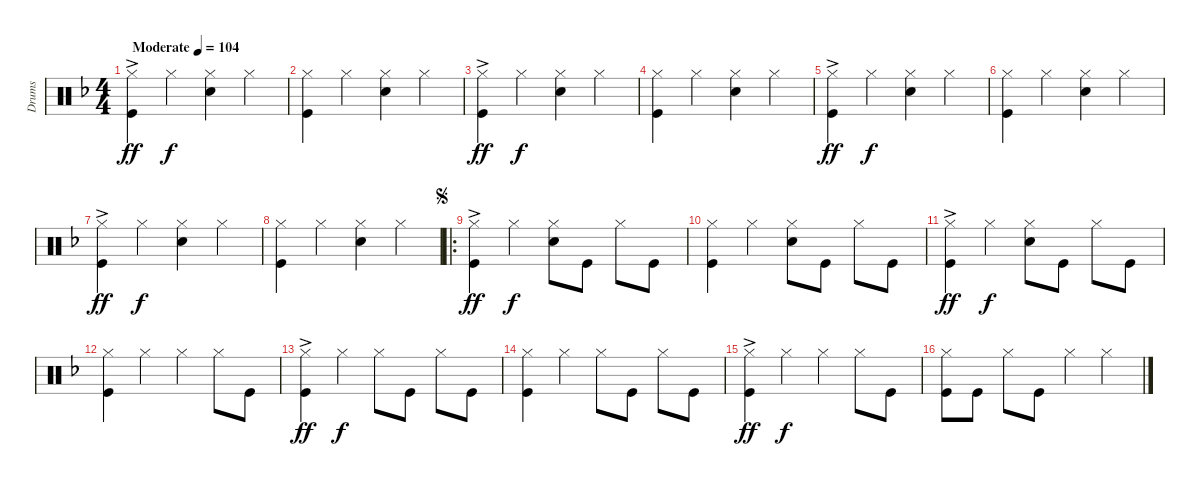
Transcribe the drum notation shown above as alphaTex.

\track ("Drums" "Drums") {instrument percussion}
\staff {score}
\articulation defaults
\ts (4 4)
\tempo (104 "Moderate")
\clef neutral
\ks f
("Hi-Hat (closed)"{ac} "Kick (hit)").4{dy ff} "Hi-Hat (closed)".4{dy f} ("Hi-Hat (closed)" "Snare (hit) 2").4 "Hi-Hat (closed)".4 |
("Hi-Hat (closed)" "Kick (hit)").4 "Hi-Hat (closed)".4 ("Hi-Hat (closed)" "Snare (hit) 2").4 "Hi-Hat (closed)".4 |
("Hi-Hat (closed)"{ac} "Kick (hit)").4{dy ff} "Hi-Hat (closed)".4{dy f} ("Hi-Hat (closed)" "Snare (hit) 2").4 "Hi-Hat (closed)".4 |
("Hi-Hat (closed)" "Kick (hit)").4 "Hi-Hat (closed)".4 ("Hi-Hat (closed)" "Snare (hit) 2").4 "Hi-Hat (closed)".4 |
("Hi-Hat (closed)"{ac} "Kick (hit)").4{dy ff} "Hi-Hat (closed)".4{dy f} ("Hi-Hat (closed)" "Snare (hit) 2").4 "Hi-Hat (closed)".4 |
("Hi-Hat (closed)" "Kick (hit)").4 "Hi-Hat (closed)".4 ("Hi-Hat (closed)" "Snare (hit) 2").4 "Hi-Hat (closed)".4 |
("Hi-Hat (closed)"{ac} "Kick (hit)").4{dy ff} "Hi-Hat (closed)".4{dy f} ("Hi-Hat (closed)" "Snare (hit) 2").4 "Hi-Hat (closed)".4 |
("Hi-Hat (closed)" "Kick (hit)").4 "Hi-Hat (closed)".4 ("Hi-Hat (closed)" "Snare (hit) 2").4 "Hi-Hat (closed)".4 |
\ro
\jump segno
("Hi-Hat (closed)"{ac} "Kick (hit)").4{dy ff} "Hi-Hat (closed)".4{dy f} ("Hi-Hat (closed)" "Snare (hit) 2").8 "Kick (hit)".8 "Hi-Hat (closed)".8 "Kick (hit)".8 |
("Hi-Hat (closed)" "Kick (hit)").4 "Hi-Hat (closed)".4 ("Hi-Hat (closed)" "Snare (hit) 2").8 "Kick (hit)".8 "Hi-Hat (closed)".8 "Kick (hit)".8 |
("Hi-Hat (closed)"{ac} "Kick (hit)").4{dy ff} "Hi-Hat (closed)".4{dy f} ("Hi-Hat (closed)" "Snare (hit) 2").8 "Kick (hit)".8 "Hi-Hat (closed)".8 "Kick (hit)".8 |
("Hi-Hat (closed)" "Kick (hit)").4 "Hi-Hat (closed)".4 "Hi-Hat (closed)".4 "Hi-Hat (closed)".8 "Kick (hit)".8 |
("Hi-Hat (closed)"{ac} "Kick (hit)").4{dy ff} "Hi-Hat (closed)".4{dy f} "Hi-Hat (closed)".8 "Kick (hit)".8 "Hi-Hat (closed)".8 "Kick (hit)".8 |
("Hi-Hat (closed)" "Kick (hit)").4 "Hi-Hat (closed)".4 "Hi-Hat (closed)".8 "Kick (hit)".8 "Hi-Hat (closed)".8 "Kick (hit)".8 |
("Hi-Hat (closed)"{ac} "Kick (hit)").4{dy ff} "Hi-Hat (closed)".4{dy f} "Hi-Hat (closed)".4 "Hi-Hat (closed)".8 "Kick (hit)".8 |
("Hi-Hat (closed)" "Kick (hit)").8 "Kick (hit)".8 "Hi-Hat (closed)".8 "Kick (hit)".8 "Hi-Hat (closed)".4 "Hi-Hat (closed)".4
